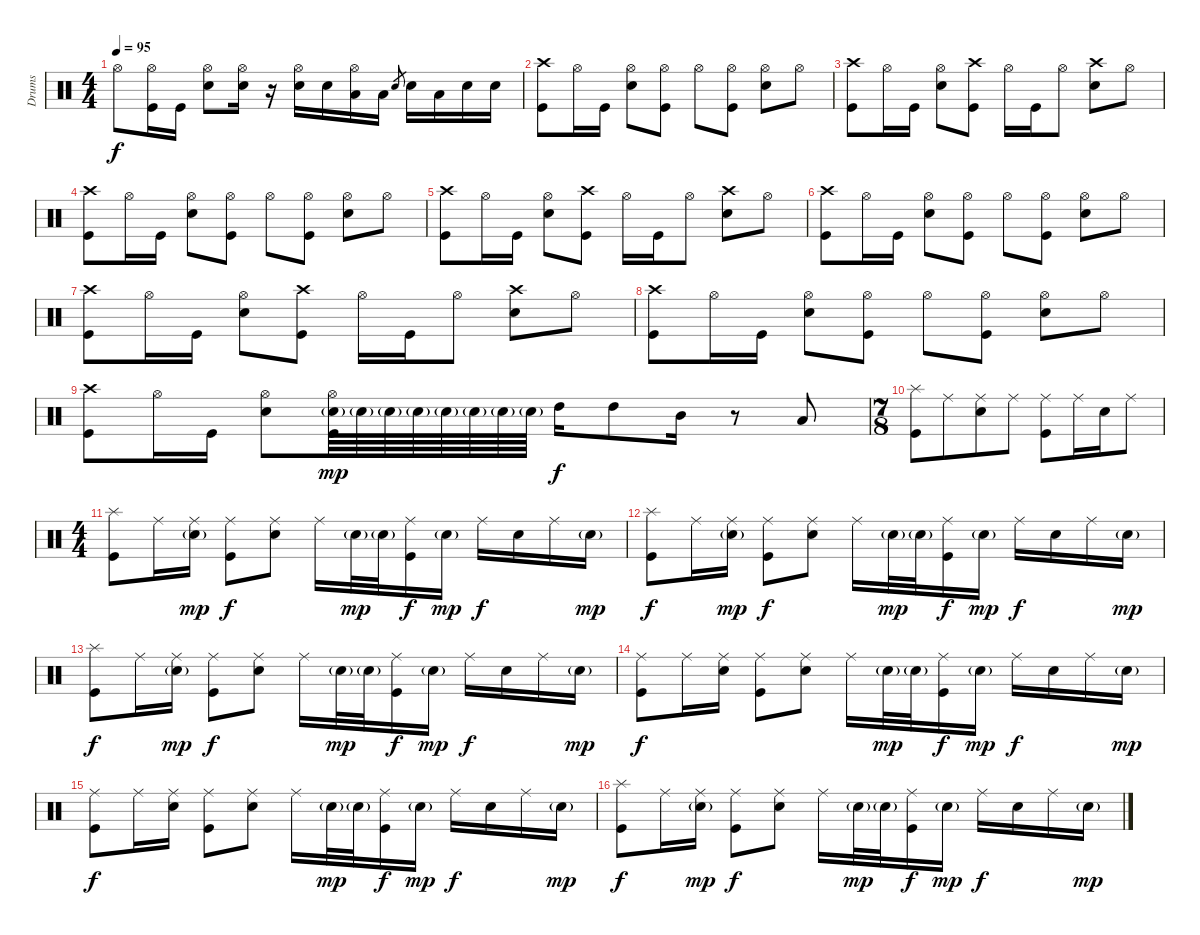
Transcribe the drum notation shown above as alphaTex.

\track ("Drums" "Drums") {instrument percussion}
\staff {score}
\articulation defaults
\ts (4 4)
\tempo 95
\clef neutral
\ks c "Hi-Hat (open)".8{dy f}
("Hi-Hat (open)" "Kick (hit)").16 "Kick (hit)".16 ("Hi-Hat (open)" "Electric Snare (hit)").8 ("Hi-Hat (open)" "Electric Snare (hit)").16 r.16 ("Hi-Hat (open)" "Electric Snare (hit)").16 "Electric Snare (hit)".16 ("Hi-Hat (open)" "Low Floor Tom (hit)").16 "Low Floor Tom (hit)".16 "Electric Snare (hit)".8{gr} "Electric Snare (hit)".16 "Low Floor Tom (hit)".16 "Electric Snare (hit)".16 "Electric Snare (hit)".16 |
("Crash high (hit)" "Kick (hit)").8 "Hi-Hat (open)".16 "Kick (hit)".16 ("Hi-Hat (open)" "Electric Snare (hit)").8 ("Hi-Hat (open)" "Kick (hit)").8 "Hi-Hat (open)".8 ("Hi-Hat (open)" "Kick (hit)").8 ("Hi-Hat (open)" "Electric Snare (hit)").8 "Hi-Hat (open)".8 |
("Crash high (hit)" "Kick (hit)").8 "Hi-Hat (open)".16 "Kick (hit)".16 ("Hi-Hat (open)" "Electric Snare (hit)").8 ("Crash high (hit)" "Kick (hit)").8 "Hi-Hat (open)".16 "Kick (hit)".16 "Hi-Hat (open)".8 ("Crash high (hit)" "Electric Snare (hit)").8 "Hi-Hat (open)".8 |
("Crash high (hit)" "Kick (hit)").8 "Hi-Hat (open)".16 "Kick (hit)".16 ("Hi-Hat (open)" "Electric Snare (hit)").8 ("Hi-Hat (open)" "Kick (hit)").8 "Hi-Hat (open)".8 ("Hi-Hat (open)" "Kick (hit)").8 ("Hi-Hat (open)" "Electric Snare (hit)").8 "Hi-Hat (open)".8 |
("Crash high (hit)" "Kick (hit)").8 "Hi-Hat (open)".16 "Kick (hit)".16 ("Hi-Hat (open)" "Electric Snare (hit)").8 ("Crash high (hit)" "Kick (hit)").8 "Hi-Hat (open)".16 "Kick (hit)".16 "Hi-Hat (open)".8 ("Crash high (hit)" "Electric Snare (hit)").8 "Hi-Hat (open)".8 |
("Crash high (hit)" "Kick (hit)").8 "Hi-Hat (open)".16 "Kick (hit)".16 ("Hi-Hat (open)" "Electric Snare (hit)").8 ("Hi-Hat (open)" "Kick (hit)").8 "Hi-Hat (open)".8 ("Hi-Hat (open)" "Kick (hit)").8 ("Hi-Hat (open)" "Electric Snare (hit)").8 "Hi-Hat (open)".8 |
("Crash high (hit)" "Kick (hit)").8 "Hi-Hat (open)".16 "Kick (hit)".16 ("Hi-Hat (open)" "Electric Snare (hit)").8 ("Crash high (hit)" "Kick (hit)").8 "Hi-Hat (open)".16 "Kick (hit)".16 "Hi-Hat (open)".8 ("Crash high (hit)" "Electric Snare (hit)").8 "Hi-Hat (open)".8 |
("Crash high (hit)" "Kick (hit)").8 "Hi-Hat (open)".16 "Kick (hit)".16 ("Hi-Hat (open)" "Electric Snare (hit)").8 ("Hi-Hat (open)" "Kick (hit)").8 "Hi-Hat (open)".8 ("Hi-Hat (open)" "Kick (hit)").8 ("Hi-Hat (open)" "Electric Snare (hit)").8 "Hi-Hat (open)".8 |
("Crash high (hit)" "Kick (hit)").8 "Hi-Hat (open)".16 "Kick (hit)".16 ("Hi-Hat (open)" "Electric Snare (hit)").8 ("Hi-Hat (open)" "Electric Snare (hit)"{g} "Kick (hit)").64{dy mp} "Electric Snare (hit)"{g}.64 "Electric Snare (hit)"{g}.64 "Electric Snare (hit)"{g}.64 "Electric Snare (hit)"{g}.64 "Electric Snare (hit)"{g}.64 "Electric Snare (hit)"{g}.64 "Electric Snare (hit)"{g}.64 "High Tom (hit)".16{dy f} "High Tom (hit)".8 "Mid Tom (hit)".16 r.8 "Low Tom (hit)".8 |
\ts (7 8)
("Splash (hit)" "Kick (hit)").8 "Ride (middle)".8 ("Ride (middle)" "Electric Snare (hit)").8 "Ride (middle)".8 ("Ride (middle)" "Kick (hit)").8 "Ride (middle)".16 "Electric Snare (hit)".16 "Ride (middle)".8 |
\ts (4 4)
("Splash (hit)" "Kick (hit)").8 "Ride (middle)".16 ("Ride (middle)" "Electric Snare (hit)"{g}).16{dy mp} ("Ride (middle)" "Kick (hit)").8{dy f} ("Ride (middle)" "Electric Snare (hit)").8 "Ride (middle)".16 "Electric Snare (hit)"{g}.32{dy mp} "Electric Snare (hit)"{g}.32 ("Ride (middle)" "Kick (hit)").16{dy f} "Electric Snare (hit)"{g}.16{dy mp} "Ride (middle)".16{dy f} "Electric Snare (hit)".16 "Ride (middle)".16 "Electric Snare (hit)"{g}.16{dy mp} |
("Splash (hit)" "Kick (hit)").8{dy f} "Ride (middle)".16 ("Ride (middle)" "Electric Snare (hit)"{g}).16{dy mp} ("Ride (middle)" "Kick (hit)").8{dy f} ("Ride (middle)" "Electric Snare (hit)").8 "Ride (middle)".16 "Electric Snare (hit)"{g}.32{dy mp} "Electric Snare (hit)"{g}.32 ("Ride (middle)" "Kick (hit)").16{dy f} "Electric Snare (hit)"{g}.16{dy mp} "Ride (middle)".16{dy f} "Electric Snare (hit)".16 "Ride (middle)".16 "Electric Snare (hit)"{g}.16{dy mp} |
("Splash (hit)" "Kick (hit)").8{dy f} "Ride (middle)".16 ("Ride (middle)" "Electric Snare (hit)"{g}).16{dy mp} ("Ride (middle)" "Kick (hit)").8{dy f} ("Ride (middle)" "Electric Snare (hit)").8 "Ride (middle)".16 "Electric Snare (hit)"{g}.32{dy mp} "Electric Snare (hit)"{g}.32 ("Ride (middle)" "Kick (hit)").16{dy f} "Electric Snare (hit)"{g}.16{dy mp} "Ride (middle)".16{dy f} "Electric Snare (hit)".16 "Ride (middle)".16 "Electric Snare (hit)"{g}.16{dy mp} |
("Ride (middle)" "Kick (hit)").8{dy f} "Ride (middle)".16 ("Ride (middle)" "Electric Snare (hit)").16 ("Ride (middle)" "Kick (hit)").8 ("Ride (middle)" "Electric Snare (hit)").8 "Ride (middle)".16 "Electric Snare (hit)"{g}.32{dy mp} "Electric Snare (hit)"{g}.32 ("Ride (middle)" "Kick (hit)").16{dy f} "Electric Snare (hit)"{g}.16{dy mp} "Ride (middle)".16{dy f} "Electric Snare (hit)".16 "Ride (middle)".16 "Electric Snare (hit)"{g}.16{dy mp} |
("Ride (middle)" "Kick (hit)").8{dy f} "Ride (middle)".16 ("Ride (middle)" "Electric Snare (hit)").16 ("Ride (middle)" "Kick (hit)").8 ("Ride (middle)" "Electric Snare (hit)").8 "Ride (middle)".16 "Electric Snare (hit)"{g}.32{dy mp} "Electric Snare (hit)"{g}.32 ("Ride (middle)" "Kick (hit)").16{dy f} "Electric Snare (hit)"{g}.16{dy mp} "Ride (middle)".16{dy f} "Electric Snare (hit)".16 "Ride (middle)".16 "Electric Snare (hit)"{g}.16{dy mp} |
("Splash (hit)" "Kick (hit)").8{dy f} "Ride (middle)".16 ("Ride (middle)" "Electric Snare (hit)"{g}).16{dy mp} ("Ride (middle)" "Kick (hit)").8{dy f} ("Ride (middle)" "Electric Snare (hit)").8 "Ride (middle)".16 "Electric Snare (hit)"{g}.32{dy mp} "Electric Snare (hit)"{g}.32 ("Ride (middle)" "Kick (hit)").16{dy f} "Electric Snare (hit)"{g}.16{dy mp} "Ride (middle)".16{dy f} "Electric Snare (hit)".16 "Ride (middle)".16 "Electric Snare (hit)"{g}.16{dy mp}
